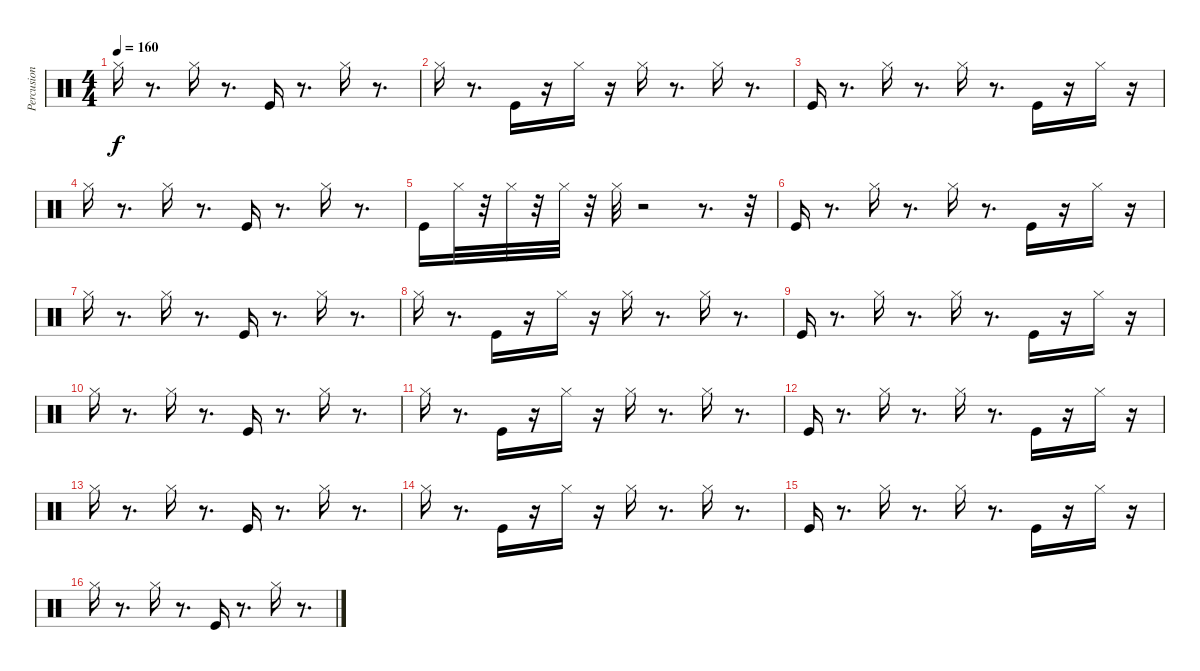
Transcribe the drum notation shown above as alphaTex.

\track ("Percusion" "Percusion") {instrument percussion}
\staff {score}
\articulation defaults
\ts (4 4)
\tempo 160
\clef neutral
\ks c "Hi-Hat (closed)".16{dy f}
r.8{d} "Hi-Hat (closed)".16 r.8{d} "Kick (hit)".16 r.8{d} "Hi-Hat (closed)".16 r.8{d} |
"Hi-Hat (closed)".16 r.8{d} "Kick (hit)".16 r.16 "Hi-Hat (closed)".16 r.16 "Hi-Hat (closed)".16 r.8{d} "Hi-Hat (closed)".16 r.8{d} |
"Kick (hit)".16 r.8{d} "Hi-Hat (closed)".16 r.8{d} "Hi-Hat (closed)".16 r.8{d} "Kick (hit)".16 r.16 "Hi-Hat (closed)".16 r.16 |
"Hi-Hat (closed)".16 r.8{d} "Hi-Hat (closed)".16 r.8{d} "Kick (hit)".16 r.8{d} "Hi-Hat (closed)".16 r.8{d} |
"Kick (hit)".16 "Hi-Hat (closed)".32 r.32 "Hi-Hat (closed)".32 r.32 "Hi-Hat (closed)".32 r.32 "Hi-Hat (closed)".32 r.2 r.8{d} r.32 |
"Kick (hit)".16 r.8{d} "Hi-Hat (closed)".16 r.8{d} "Hi-Hat (closed)".16 r.8{d} "Kick (hit)".16 r.16 "Hi-Hat (closed)".16 r.16 |
"Hi-Hat (closed)".16 r.8{d} "Hi-Hat (closed)".16 r.8{d} "Kick (hit)".16 r.8{d} "Hi-Hat (closed)".16 r.8{d} |
"Hi-Hat (closed)".16 r.8{d} "Kick (hit)".16 r.16 "Hi-Hat (closed)".16 r.16 "Hi-Hat (closed)".16 r.8{d} "Hi-Hat (closed)".16 r.8{d} |
"Kick (hit)".16 r.8{d} "Hi-Hat (closed)".16 r.8{d} "Hi-Hat (closed)".16 r.8{d} "Kick (hit)".16 r.16 "Hi-Hat (closed)".16 r.16 |
"Hi-Hat (closed)".16 r.8{d} "Hi-Hat (closed)".16 r.8{d} "Kick (hit)".16 r.8{d} "Hi-Hat (closed)".16 r.8{d} |
"Hi-Hat (closed)".16 r.8{d} "Kick (hit)".16 r.16 "Hi-Hat (closed)".16 r.16 "Hi-Hat (closed)".16 r.8{d} "Hi-Hat (closed)".16 r.8{d} |
"Kick (hit)".16 r.8{d} "Hi-Hat (closed)".16 r.8{d} "Hi-Hat (closed)".16 r.8{d} "Kick (hit)".16 r.16 "Hi-Hat (closed)".16 r.16 |
"Hi-Hat (closed)".16 r.8{d} "Hi-Hat (closed)".16 r.8{d} "Kick (hit)".16 r.8{d} "Hi-Hat (closed)".16 r.8{d} |
"Hi-Hat (closed)".16 r.8{d} "Kick (hit)".16 r.16 "Hi-Hat (closed)".16 r.16 "Hi-Hat (closed)".16 r.8{d} "Hi-Hat (closed)".16 r.8{d} |
"Kick (hit)".16 r.8{d} "Hi-Hat (closed)".16 r.8{d} "Hi-Hat (closed)".16 r.8{d} "Kick (hit)".16 r.16 "Hi-Hat (closed)".16 r.16 |
"Hi-Hat (closed)".16 r.8{d} "Hi-Hat (closed)".16 r.8{d} "Kick (hit)".16 r.8{d} "Hi-Hat (closed)".16 r.8{d}
